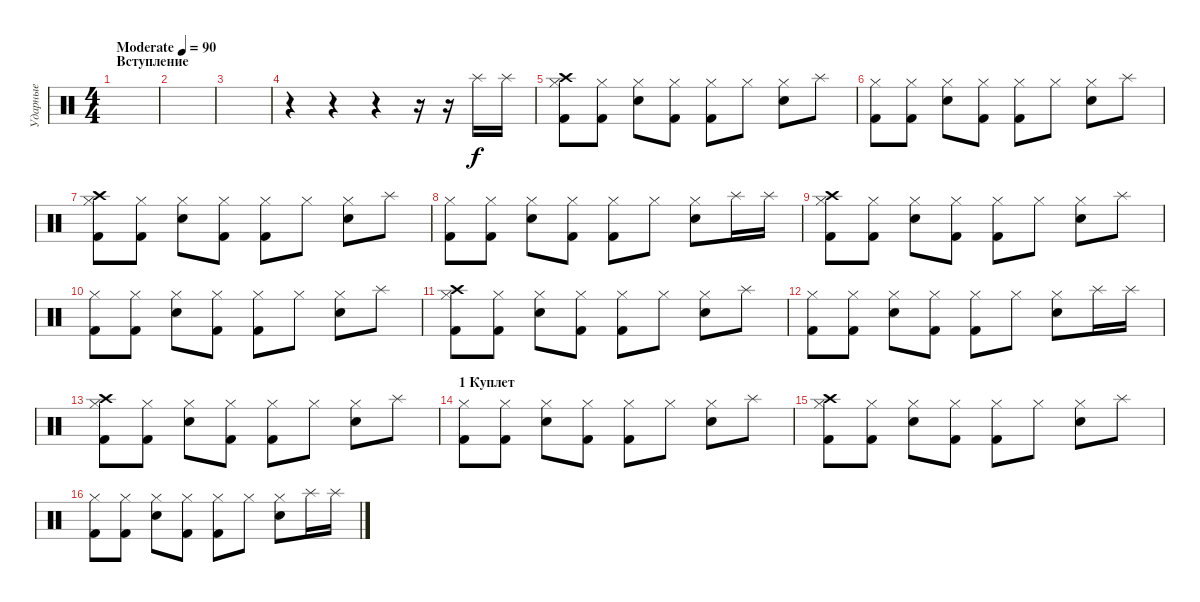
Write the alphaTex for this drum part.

\track ("Ударные" "Ударные") {instrument percussion}
\staff {score}
\articulation defaults
\ts (4 4)
\section ("" "Вступление")
\tempo (90 "Moderate")
\clef neutral
\ks c
|
|
|
r.4 r.4 r.4 r.16 r.16 "Splash (hit)".16 "Splash (hit)".16 |
("Hi-Hat (closed)" "Crash high (hit)" "Kick (hit) 2").8 ("Hi-Hat (closed)" "Kick (hit) 2").8 ("Hi-Hat (closed)" "Snare (hit) 2").8 ("Hi-Hat (closed)" "Kick (hit) 2").8 ("Hi-Hat (closed)" "Kick (hit) 2").8 "Hi-Hat (closed)".8 ("Hi-Hat (closed)" "Snare (hit) 2").8 "Splash (hit)".8 |
("Hi-Hat (closed)" "Kick (hit) 2").8 ("Hi-Hat (closed)" "Kick (hit) 2").8 ("Hi-Hat (closed)" "Snare (hit) 2").8 ("Hi-Hat (closed)" "Kick (hit) 2").8 ("Hi-Hat (closed)" "Kick (hit) 2").8 "Hi-Hat (closed)".8 ("Hi-Hat (closed)" "Snare (hit) 2").8 "Splash (hit)".8 |
("Hi-Hat (closed)" "Crash high (hit)" "Kick (hit) 2").8 ("Hi-Hat (closed)" "Kick (hit) 2").8 ("Hi-Hat (closed)" "Snare (hit) 2").8 ("Hi-Hat (closed)" "Kick (hit) 2").8 ("Hi-Hat (closed)" "Kick (hit) 2").8 "Hi-Hat (closed)".8 ("Hi-Hat (closed)" "Snare (hit) 2").8 "Splash (hit)".8 |
("Hi-Hat (closed)" "Kick (hit) 2").8 ("Hi-Hat (closed)" "Kick (hit) 2").8 ("Hi-Hat (closed)" "Snare (hit) 2").8 ("Hi-Hat (closed)" "Kick (hit) 2").8 ("Hi-Hat (closed)" "Kick (hit) 2").8 "Hi-Hat (closed)".8 ("Hi-Hat (closed)" "Snare (hit) 2").8 "Splash (hit)".16 "Splash (hit)".16 |
("Hi-Hat (closed)" "Crash high (hit)" "Kick (hit) 2").8 ("Hi-Hat (closed)" "Kick (hit) 2").8 ("Hi-Hat (closed)" "Snare (hit) 2").8 ("Hi-Hat (closed)" "Kick (hit) 2").8 ("Hi-Hat (closed)" "Kick (hit) 2").8 "Hi-Hat (closed)".8 ("Hi-Hat (closed)" "Snare (hit) 2").8 "Splash (hit)".8 |
("Hi-Hat (closed)" "Kick (hit) 2").8 ("Hi-Hat (closed)" "Kick (hit) 2").8 ("Hi-Hat (closed)" "Snare (hit) 2").8 ("Hi-Hat (closed)" "Kick (hit) 2").8 ("Hi-Hat (closed)" "Kick (hit) 2").8 "Hi-Hat (closed)".8 ("Hi-Hat (closed)" "Snare (hit) 2").8 "Splash (hit)".8 |
("Hi-Hat (closed)" "Crash high (hit)" "Kick (hit) 2").8 ("Hi-Hat (closed)" "Kick (hit) 2").8 ("Hi-Hat (closed)" "Snare (hit) 2").8 ("Hi-Hat (closed)" "Kick (hit) 2").8 ("Hi-Hat (closed)" "Kick (hit) 2").8 "Hi-Hat (closed)".8 ("Hi-Hat (closed)" "Snare (hit) 2").8 "Splash (hit)".8 |
("Hi-Hat (closed)" "Kick (hit) 2").8 ("Hi-Hat (closed)" "Kick (hit) 2").8 ("Hi-Hat (closed)" "Snare (hit) 2").8 ("Hi-Hat (closed)" "Kick (hit) 2").8 ("Hi-Hat (closed)" "Kick (hit) 2").8 "Hi-Hat (closed)".8 ("Hi-Hat (closed)" "Snare (hit) 2").8 "Splash (hit)".16 "Splash (hit)".16 |
("Hi-Hat (closed)" "Crash high (hit)" "Kick (hit) 2").8 ("Hi-Hat (closed)" "Kick (hit) 2").8 ("Hi-Hat (closed)" "Snare (hit) 2").8 ("Hi-Hat (closed)" "Kick (hit) 2").8 ("Hi-Hat (closed)" "Kick (hit) 2").8 "Hi-Hat (closed)".8 ("Hi-Hat (closed)" "Snare (hit) 2").8 "Splash (hit)".8 |
\section ("" "1 Куплет")
("Hi-Hat (closed)" "Kick (hit) 2").8 ("Hi-Hat (closed)" "Kick (hit) 2").8 ("Hi-Hat (closed)" "Snare (hit) 2").8 ("Hi-Hat (closed)" "Kick (hit) 2").8 ("Hi-Hat (closed)" "Kick (hit) 2").8 "Hi-Hat (closed)".8 ("Hi-Hat (closed)" "Snare (hit) 2").8 "Splash (hit)".8 |
("Hi-Hat (closed)" "Crash high (hit)" "Kick (hit) 2").8 ("Hi-Hat (closed)" "Kick (hit) 2").8 ("Hi-Hat (closed)" "Snare (hit) 2").8 ("Hi-Hat (closed)" "Kick (hit) 2").8 ("Hi-Hat (closed)" "Kick (hit) 2").8 "Hi-Hat (closed)".8 ("Hi-Hat (closed)" "Snare (hit) 2").8 "Splash (hit)".8 |
("Hi-Hat (closed)" "Kick (hit) 2").8 ("Hi-Hat (closed)" "Kick (hit) 2").8 ("Hi-Hat (closed)" "Snare (hit) 2").8 ("Hi-Hat (closed)" "Kick (hit) 2").8 ("Hi-Hat (closed)" "Kick (hit) 2").8 "Hi-Hat (closed)".8 ("Hi-Hat (closed)" "Snare (hit) 2").8 "Splash (hit)".16 "Splash (hit)".16
